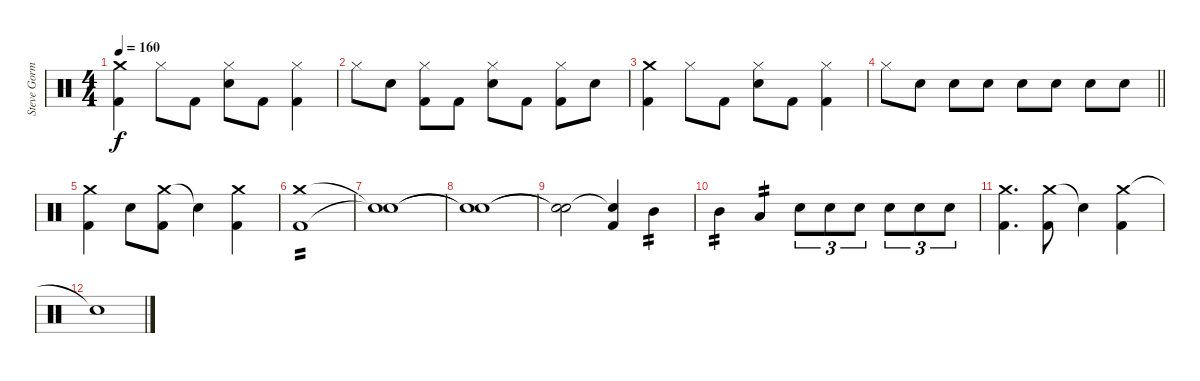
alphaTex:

\track ("Steve Gorman " "Steve Gorm") {instrument percussion}
\staff {score}
\articulation defaults
\ts (4 4)
\tempo 160
\clef neutral
\ks c
("Crash medium (hit)" "Kick (hit) 2").4{dy f} "Hi-Hat (closed)".8 "Kick (hit) 2".8 ("Hi-Hat (closed)" "Snare (hit) 2").8 "Kick (hit) 2".8 ("Hi-Hat (closed)" "Kick (hit) 2").4 |
"Hi-Hat (closed)".8 "Snare (hit) 2".8 ("Hi-Hat (closed)" "Kick (hit) 2").8 "Kick (hit) 2".8 ("Hi-Hat (closed)" "Snare (hit) 2").8 "Kick (hit) 2".8 ("Hi-Hat (closed)" "Kick (hit) 2").8 "Snare (hit) 2".8 |
("Crash medium (hit)" "Kick (hit) 2").4 "Hi-Hat (closed)".8 "Kick (hit) 2".8 ("Hi-Hat (closed)" "Snare (hit) 2").8 "Kick (hit) 2".8 ("Hi-Hat (closed)" "Kick (hit) 2").4 |
\barLineRight lightlight "Hi-Hat (closed)".8 "Snare (hit) 2".8 "Snare (hit) 2".8 "Snare (hit) 2".8 "Snare (hit) 2".8 "Snare (hit) 2".8 "Snare (hit) 2".8 "Snare (hit) 2".8
|
("Crash medium (hit)" "Kick (hit) 2").4 "Snare (hit) 2".8 ("Crash medium (hit)" "Kick (hit) 2").8 "Snare (hit)"{t}.4 ("Crash medium (hit)" "Kick (hit) 2").4 |
("Crash medium (hit)" "Kick (hit) 2").1{tp 2} |
("Snare (hit)"{t} "Snare (hit)"{t}).1 |
("Snare (hit)"{t} "Snare (hit)"{t}).1 |
("Snare (hit)"{t} "Snare (hit)"{t}).2 ("Snare (hit)"{t} "Kick (hit) 2").4 "Mid Tom (hit)".4{tp 2} |
"Mid Tom (hit)".4{tp 2} "Low Tom (hit)".4{tp 2} "Snare (hit) 2".8{tu (3 2)} "Snare (hit) 2".8{tu (3 2)} "Snare (hit) 2".8{tu (3 2)} "Snare (hit) 2".8{tu (3 2)} "Snare (hit) 2".8{tu (3 2)} "Snare (hit) 2".8{tu (3 2)} |
("Crash medium (hit)" "Kick (hit) 2").4{d} ("Crash medium (hit)" "Kick (hit) 2").8 "Snare (hit)"{t}.4 ("Crash medium (hit)" "Kick (hit) 2").4 |
"Snare (hit)"{t}.1
